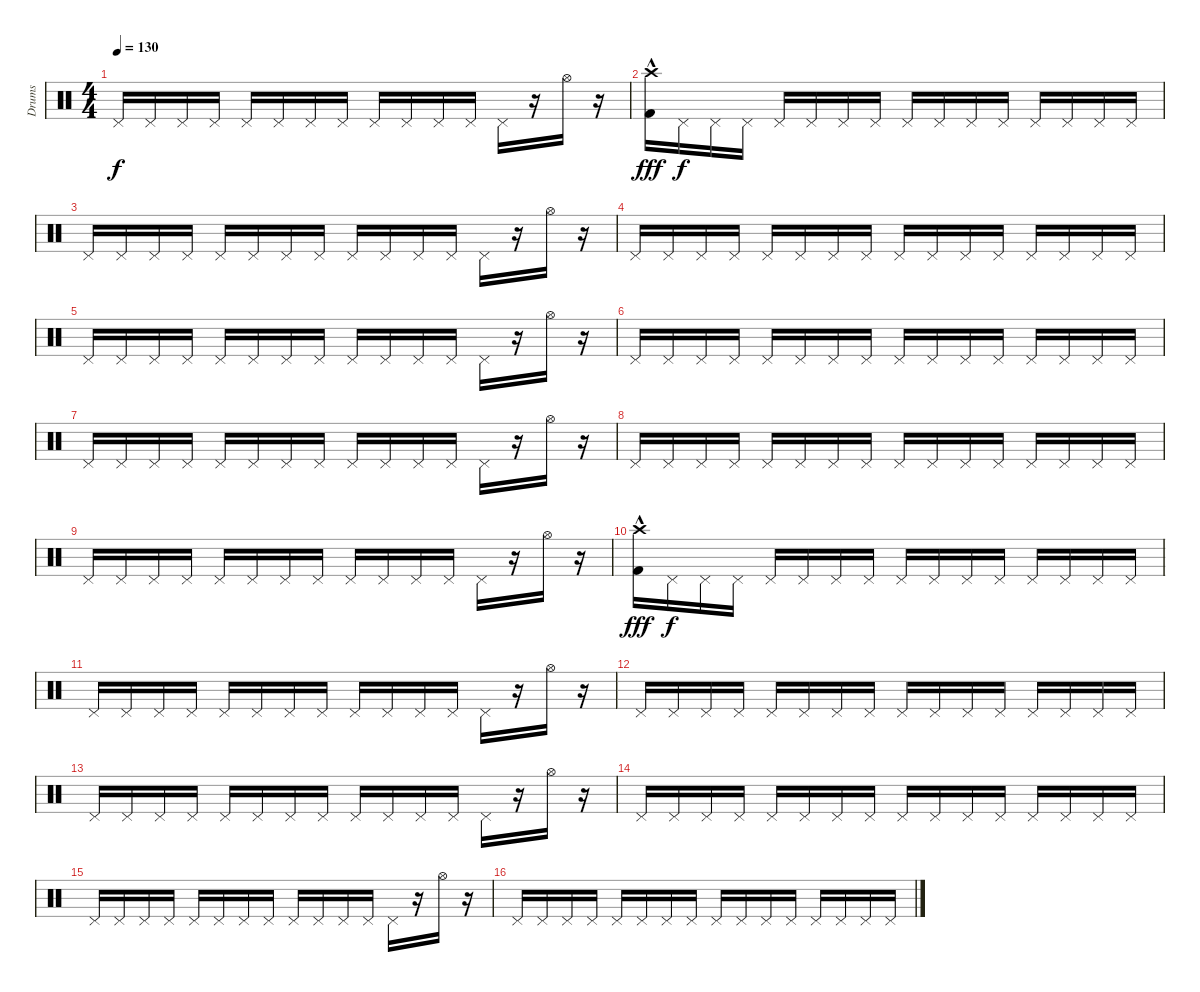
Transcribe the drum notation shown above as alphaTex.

\track ("Drums" "Drums") {instrument percussion}
\staff {score}
\articulation defaults
\ts (4 4)
\tempo 130
\clef neutral
\ks c "Pedal Hi-Hat (hit)".16{dy f} "Pedal Hi-Hat (hit)".16 "Pedal Hi-Hat (hit)".16 "Pedal Hi-Hat (hit)".16 "Pedal Hi-Hat (hit)".16 "Pedal Hi-Hat (hit)".16 "Pedal Hi-Hat (hit)".16 "Pedal Hi-Hat (hit)".16 "Pedal Hi-Hat (hit)".16 "Pedal Hi-Hat (hit)".16 "Pedal Hi-Hat (hit)".16 "Pedal Hi-Hat (hit)".16 "Pedal Hi-Hat (hit)".16
r.16 "Hi-Hat (open)".16 r.16 |
("Crash high (hit)" "Kick (hit) 2"{hac}).16{dy fff} "Pedal Hi-Hat (hit)".16{dy f} "Pedal Hi-Hat (hit)".16 "Pedal Hi-Hat (hit)".16 "Pedal Hi-Hat (hit)".16 "Pedal Hi-Hat (hit)".16 "Pedal Hi-Hat (hit)".16 "Pedal Hi-Hat (hit)".16 "Pedal Hi-Hat (hit)".16 "Pedal Hi-Hat (hit)".16 "Pedal Hi-Hat (hit)".16 "Pedal Hi-Hat (hit)".16 "Pedal Hi-Hat (hit)".16 "Pedal Hi-Hat (hit)".16 "Pedal Hi-Hat (hit)".16 "Pedal Hi-Hat (hit)".16 |
"Pedal Hi-Hat (hit)".16 "Pedal Hi-Hat (hit)".16 "Pedal Hi-Hat (hit)".16 "Pedal Hi-Hat (hit)".16 "Pedal Hi-Hat (hit)".16 "Pedal Hi-Hat (hit)".16 "Pedal Hi-Hat (hit)".16 "Pedal Hi-Hat (hit)".16 "Pedal Hi-Hat (hit)".16 "Pedal Hi-Hat (hit)".16 "Pedal Hi-Hat (hit)".16 "Pedal Hi-Hat (hit)".16 "Pedal Hi-Hat (hit)".16 r.16 "Hi-Hat (open)".16 r.16 |
"Pedal Hi-Hat (hit)".16 "Pedal Hi-Hat (hit)".16 "Pedal Hi-Hat (hit)".16 "Pedal Hi-Hat (hit)".16 "Pedal Hi-Hat (hit)".16 "Pedal Hi-Hat (hit)".16 "Pedal Hi-Hat (hit)".16 "Pedal Hi-Hat (hit)".16 "Pedal Hi-Hat (hit)".16 "Pedal Hi-Hat (hit)".16 "Pedal Hi-Hat (hit)".16 "Pedal Hi-Hat (hit)".16 "Pedal Hi-Hat (hit)".16 "Pedal Hi-Hat (hit)".16 "Pedal Hi-Hat (hit)".16 "Pedal Hi-Hat (hit)".16 |
"Pedal Hi-Hat (hit)".16 "Pedal Hi-Hat (hit)".16 "Pedal Hi-Hat (hit)".16 "Pedal Hi-Hat (hit)".16 "Pedal Hi-Hat (hit)".16 "Pedal Hi-Hat (hit)".16 "Pedal Hi-Hat (hit)".16 "Pedal Hi-Hat (hit)".16 "Pedal Hi-Hat (hit)".16 "Pedal Hi-Hat (hit)".16 "Pedal Hi-Hat (hit)".16 "Pedal Hi-Hat (hit)".16 "Pedal Hi-Hat (hit)".16 r.16 "Hi-Hat (open)".16 r.16 |
"Pedal Hi-Hat (hit)".16 "Pedal Hi-Hat (hit)".16 "Pedal Hi-Hat (hit)".16 "Pedal Hi-Hat (hit)".16 "Pedal Hi-Hat (hit)".16 "Pedal Hi-Hat (hit)".16 "Pedal Hi-Hat (hit)".16 "Pedal Hi-Hat (hit)".16 "Pedal Hi-Hat (hit)".16 "Pedal Hi-Hat (hit)".16 "Pedal Hi-Hat (hit)".16 "Pedal Hi-Hat (hit)".16 "Pedal Hi-Hat (hit)".16 "Pedal Hi-Hat (hit)".16 "Pedal Hi-Hat (hit)".16 "Pedal Hi-Hat (hit)".16 |
"Pedal Hi-Hat (hit)".16 "Pedal Hi-Hat (hit)".16 "Pedal Hi-Hat (hit)".16 "Pedal Hi-Hat (hit)".16 "Pedal Hi-Hat (hit)".16 "Pedal Hi-Hat (hit)".16 "Pedal Hi-Hat (hit)".16 "Pedal Hi-Hat (hit)".16 "Pedal Hi-Hat (hit)".16 "Pedal Hi-Hat (hit)".16 "Pedal Hi-Hat (hit)".16 "Pedal Hi-Hat (hit)".16 "Pedal Hi-Hat (hit)".16 r.16 "Hi-Hat (open)".16 r.16 |
"Pedal Hi-Hat (hit)".16 "Pedal Hi-Hat (hit)".16 "Pedal Hi-Hat (hit)".16 "Pedal Hi-Hat (hit)".16 "Pedal Hi-Hat (hit)".16 "Pedal Hi-Hat (hit)".16 "Pedal Hi-Hat (hit)".16 "Pedal Hi-Hat (hit)".16 "Pedal Hi-Hat (hit)".16 "Pedal Hi-Hat (hit)".16 "Pedal Hi-Hat (hit)".16 "Pedal Hi-Hat (hit)".16 "Pedal Hi-Hat (hit)".16 "Pedal Hi-Hat (hit)".16 "Pedal Hi-Hat (hit)".16 "Pedal Hi-Hat (hit)".16 |
"Pedal Hi-Hat (hit)".16 "Pedal Hi-Hat (hit)".16 "Pedal Hi-Hat (hit)".16 "Pedal Hi-Hat (hit)".16 "Pedal Hi-Hat (hit)".16 "Pedal Hi-Hat (hit)".16 "Pedal Hi-Hat (hit)".16 "Pedal Hi-Hat (hit)".16 "Pedal Hi-Hat (hit)".16 "Pedal Hi-Hat (hit)".16 "Pedal Hi-Hat (hit)".16 "Pedal Hi-Hat (hit)".16 "Pedal Hi-Hat (hit)".16 r.16 "Hi-Hat (open)".16 r.16 |
("Crash high (hit)" "Kick (hit) 2"{hac}).16{dy fff} "Pedal Hi-Hat (hit)".16{dy f} "Pedal Hi-Hat (hit)".16 "Pedal Hi-Hat (hit)".16 "Pedal Hi-Hat (hit)".16 "Pedal Hi-Hat (hit)".16 "Pedal Hi-Hat (hit)".16 "Pedal Hi-Hat (hit)".16 "Pedal Hi-Hat (hit)".16 "Pedal Hi-Hat (hit)".16 "Pedal Hi-Hat (hit)".16 "Pedal Hi-Hat (hit)".16 "Pedal Hi-Hat (hit)".16 "Pedal Hi-Hat (hit)".16 "Pedal Hi-Hat (hit)".16 "Pedal Hi-Hat (hit)".16 |
"Pedal Hi-Hat (hit)".16 "Pedal Hi-Hat (hit)".16 "Pedal Hi-Hat (hit)".16 "Pedal Hi-Hat (hit)".16 "Pedal Hi-Hat (hit)".16 "Pedal Hi-Hat (hit)".16 "Pedal Hi-Hat (hit)".16 "Pedal Hi-Hat (hit)".16 "Pedal Hi-Hat (hit)".16 "Pedal Hi-Hat (hit)".16 "Pedal Hi-Hat (hit)".16 "Pedal Hi-Hat (hit)".16 "Pedal Hi-Hat (hit)".16 r.16 "Hi-Hat (open)".16 r.16 |
"Pedal Hi-Hat (hit)".16 "Pedal Hi-Hat (hit)".16 "Pedal Hi-Hat (hit)".16 "Pedal Hi-Hat (hit)".16 "Pedal Hi-Hat (hit)".16 "Pedal Hi-Hat (hit)".16 "Pedal Hi-Hat (hit)".16 "Pedal Hi-Hat (hit)".16 "Pedal Hi-Hat (hit)".16 "Pedal Hi-Hat (hit)".16 "Pedal Hi-Hat (hit)".16 "Pedal Hi-Hat (hit)".16 "Pedal Hi-Hat (hit)".16 "Pedal Hi-Hat (hit)".16 "Pedal Hi-Hat (hit)".16 "Pedal Hi-Hat (hit)".16 |
"Pedal Hi-Hat (hit)".16 "Pedal Hi-Hat (hit)".16 "Pedal Hi-Hat (hit)".16 "Pedal Hi-Hat (hit)".16 "Pedal Hi-Hat (hit)".16 "Pedal Hi-Hat (hit)".16 "Pedal Hi-Hat (hit)".16 "Pedal Hi-Hat (hit)".16 "Pedal Hi-Hat (hit)".16 "Pedal Hi-Hat (hit)".16 "Pedal Hi-Hat (hit)".16 "Pedal Hi-Hat (hit)".16 "Pedal Hi-Hat (hit)".16 r.16 "Hi-Hat (open)".16 r.16 |
"Pedal Hi-Hat (hit)".16 "Pedal Hi-Hat (hit)".16 "Pedal Hi-Hat (hit)".16 "Pedal Hi-Hat (hit)".16 "Pedal Hi-Hat (hit)".16 "Pedal Hi-Hat (hit)".16 "Pedal Hi-Hat (hit)".16 "Pedal Hi-Hat (hit)".16 "Pedal Hi-Hat (hit)".16 "Pedal Hi-Hat (hit)".16 "Pedal Hi-Hat (hit)".16 "Pedal Hi-Hat (hit)".16 "Pedal Hi-Hat (hit)".16 "Pedal Hi-Hat (hit)".16 "Pedal Hi-Hat (hit)".16 "Pedal Hi-Hat (hit)".16 |
"Pedal Hi-Hat (hit)".16 "Pedal Hi-Hat (hit)".16 "Pedal Hi-Hat (hit)".16 "Pedal Hi-Hat (hit)".16 "Pedal Hi-Hat (hit)".16 "Pedal Hi-Hat (hit)".16 "Pedal Hi-Hat (hit)".16 "Pedal Hi-Hat (hit)".16 "Pedal Hi-Hat (hit)".16 "Pedal Hi-Hat (hit)".16 "Pedal Hi-Hat (hit)".16 "Pedal Hi-Hat (hit)".16 "Pedal Hi-Hat (hit)".16 r.16 "Hi-Hat (open)".16 r.16 |
"Pedal Hi-Hat (hit)".16 "Pedal Hi-Hat (hit)".16 "Pedal Hi-Hat (hit)".16 "Pedal Hi-Hat (hit)".16 "Pedal Hi-Hat (hit)".16 "Pedal Hi-Hat (hit)".16 "Pedal Hi-Hat (hit)".16 "Pedal Hi-Hat (hit)".16 "Pedal Hi-Hat (hit)".16 "Pedal Hi-Hat (hit)".16 "Pedal Hi-Hat (hit)".16 "Pedal Hi-Hat (hit)".16 "Pedal Hi-Hat (hit)".16 "Pedal Hi-Hat (hit)".16 "Pedal Hi-Hat (hit)".16 "Pedal Hi-Hat (hit)".16
